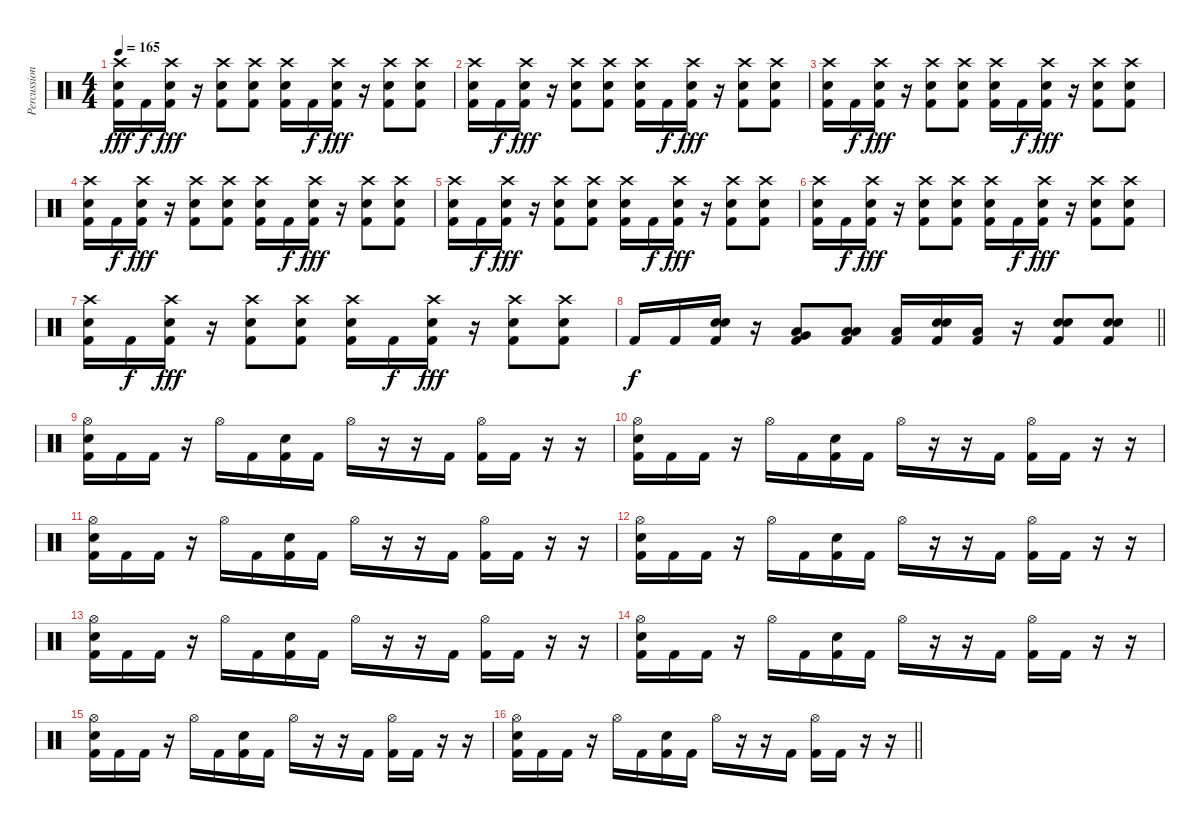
\track ("Percussion" "Percussion") {instrument percussion}
\staff {score}
\articulation defaults
\ts (4 4)
\tempo 165
\clef neutral
\ks c
("Crash high (hit)" "Electric Snare (hit)" "Kick (hit) 2").16{dy fff} "Kick (hit) 2".16{dy f} ("Crash high (hit)" "Electric Snare (hit)" "Kick (hit) 2").16{dy fff} r.16 ("Crash high (hit)" "Electric Snare (hit)" "Kick (hit) 2").8 ("Crash high (hit)" "Electric Snare (hit)" "Kick (hit) 2").8 ("Crash high (hit)" "Electric Snare (hit)" "Kick (hit) 2").16 "Kick (hit) 2".16{dy f} ("Crash high (hit)" "Electric Snare (hit)" "Kick (hit) 2").16{dy fff} r.16 ("Crash high (hit)" "Electric Snare (hit)" "Kick (hit) 2").8 ("Crash high (hit)" "Electric Snare (hit)" "Kick (hit) 2").8 |
("Crash high (hit)" "Electric Snare (hit)" "Kick (hit) 2").16 "Kick (hit) 2".16{dy f} ("Crash high (hit)" "Electric Snare (hit)" "Kick (hit) 2").16{dy fff} r.16 ("Crash high (hit)" "Electric Snare (hit)" "Kick (hit) 2").8 ("Crash high (hit)" "Electric Snare (hit)" "Kick (hit) 2").8 ("Crash high (hit)" "Electric Snare (hit)" "Kick (hit) 2").16 "Kick (hit) 2".16{dy f} ("Crash high (hit)" "Electric Snare (hit)" "Kick (hit) 2").16{dy fff} r.16 ("Crash high (hit)" "Electric Snare (hit)" "Kick (hit) 2").8 ("Crash high (hit)" "Electric Snare (hit)" "Kick (hit) 2").8 |
("Crash high (hit)" "Electric Snare (hit)" "Kick (hit) 2").16 "Kick (hit) 2".16{dy f} ("Crash high (hit)" "Electric Snare (hit)" "Kick (hit) 2").16{dy fff} r.16 ("Crash high (hit)" "Electric Snare (hit)" "Kick (hit) 2").8 ("Crash high (hit)" "Electric Snare (hit)" "Kick (hit) 2").8 ("Crash high (hit)" "Electric Snare (hit)" "Kick (hit) 2").16 "Kick (hit) 2".16{dy f} ("Crash high (hit)" "Electric Snare (hit)" "Kick (hit) 2").16{dy fff} r.16 ("Crash high (hit)" "Electric Snare (hit)" "Kick (hit) 2").8 ("Crash high (hit)" "Electric Snare (hit)" "Kick (hit) 2").8 |
("Crash high (hit)" "Electric Snare (hit)" "Kick (hit) 2").16 "Kick (hit) 2".16{dy f} ("Crash high (hit)" "Electric Snare (hit)" "Kick (hit) 2").16{dy fff} r.16 ("Crash high (hit)" "Electric Snare (hit)" "Kick (hit) 2").8 ("Crash high (hit)" "Electric Snare (hit)" "Kick (hit) 2").8 ("Crash high (hit)" "Electric Snare (hit)" "Kick (hit) 2").16 "Kick (hit) 2".16{dy f} ("Crash high (hit)" "Electric Snare (hit)" "Kick (hit) 2").16{dy fff} r.16 ("Crash high (hit)" "Electric Snare (hit)" "Kick (hit) 2").8 ("Crash high (hit)" "Electric Snare (hit)" "Kick (hit) 2").8 |
("Crash high (hit)" "Electric Snare (hit)" "Kick (hit) 2").16 "Kick (hit) 2".16{dy f} ("Crash high (hit)" "Electric Snare (hit)" "Kick (hit) 2").16{dy fff} r.16 ("Crash high (hit)" "Electric Snare (hit)" "Kick (hit) 2").8 ("Crash high (hit)" "Electric Snare (hit)" "Kick (hit) 2").8 ("Crash high (hit)" "Electric Snare (hit)" "Kick (hit) 2").16 "Kick (hit) 2".16{dy f} ("Crash high (hit)" "Electric Snare (hit)" "Kick (hit) 2").16{dy fff} r.16 ("Crash high (hit)" "Electric Snare (hit)" "Kick (hit) 2").8 ("Crash high (hit)" "Electric Snare (hit)" "Kick (hit) 2").8 |
("Crash high (hit)" "Electric Snare (hit)" "Kick (hit) 2").16 "Kick (hit) 2".16{dy f} ("Crash high (hit)" "Electric Snare (hit)" "Kick (hit) 2").16{dy fff} r.16 ("Crash high (hit)" "Electric Snare (hit)" "Kick (hit) 2").8 ("Crash high (hit)" "Electric Snare (hit)" "Kick (hit) 2").8 ("Crash high (hit)" "Electric Snare (hit)" "Kick (hit) 2").16 "Kick (hit) 2".16{dy f} ("Crash high (hit)" "Electric Snare (hit)" "Kick (hit) 2").16{dy fff} r.16 ("Crash high (hit)" "Electric Snare (hit)" "Kick (hit) 2").8 ("Crash high (hit)" "Electric Snare (hit)" "Kick (hit) 2").8 |
("Crash high (hit)" "Electric Snare (hit)" "Kick (hit) 2").16 "Kick (hit) 2".16{dy f} ("Crash high (hit)" "Electric Snare (hit)" "Kick (hit) 2").16{dy fff} r.16 ("Crash high (hit)" "Electric Snare (hit)" "Kick (hit) 2").8 ("Crash high (hit)" "Electric Snare (hit)" "Kick (hit) 2").8 ("Crash high (hit)" "Electric Snare (hit)" "Kick (hit) 2").16 "Kick (hit) 2".16{dy f} ("Crash high (hit)" "Electric Snare (hit)" "Kick (hit) 2").16{dy fff} r.16 ("Crash high (hit)" "Electric Snare (hit)" "Kick (hit) 2").8 ("Crash high (hit)" "Electric Snare (hit)" "Kick (hit) 2").8 |
\barLineRight lightlight "Kick (hit) 2".16{dy f} "Kick (hit) 2".16
("Electric Snare (hit)" "Electric Snare (hit)" "Kick (hit) 2").16{bd 480} r.16 ("Very Low Tom (hit)" "Low Tom (hit)" "Kick (hit) 2").8 ("Low Tom (hit)" "Low Floor Tom (hit)" "Kick (hit) 2").8 ("Low Tom (hit)" "Kick (hit) 2").16 ("Electric Snare (hit)" "Electric Snare (hit)" "Kick (hit) 2").16{bd 480} ("Low Floor Tom (hit)" "Kick (hit) 2").16 r.16 ("Electric Snare (hit)" "Electric Snare (hit)" "Kick (hit) 2").8{bd 480} ("Electric Snare (hit)" "Electric Snare (hit)" "Kick (hit) 2").8{bd 480} |
("Hi-Hat (open)" "Electric Snare (hit)" "Kick (hit) 2").16 "Kick (hit) 2".16 "Kick (hit) 2".16 r.16 "Hi-Hat (open)".16 "Kick (hit) 2".16 ("Electric Snare (hit)" "Kick (hit) 2").16 "Kick (hit) 2".16 "Hi-Hat (open)".16 r.16 r.16 "Kick (hit) 2".16 ("Hi-Hat (open)" "Kick (hit) 2").16 "Kick (hit) 2".16 r.16 r.16 |
("Hi-Hat (open)" "Electric Snare (hit)" "Kick (hit) 2").16 "Kick (hit) 2".16 "Kick (hit) 2".16 r.16 "Hi-Hat (open)".16 "Kick (hit) 2".16 ("Electric Snare (hit)" "Kick (hit) 2").16 "Kick (hit) 2".16 "Hi-Hat (open)".16 r.16 r.16 "Kick (hit) 2".16 ("Hi-Hat (open)" "Kick (hit) 2").16 "Kick (hit) 2".16 r.16 r.16 |
("Hi-Hat (open)" "Electric Snare (hit)" "Kick (hit) 2").16 "Kick (hit) 2".16 "Kick (hit) 2".16 r.16 "Hi-Hat (open)".16 "Kick (hit) 2".16 ("Electric Snare (hit)" "Kick (hit) 2").16 "Kick (hit) 2".16 "Hi-Hat (open)".16 r.16 r.16 "Kick (hit) 2".16 ("Hi-Hat (open)" "Kick (hit) 2").16 "Kick (hit) 2".16 r.16 r.16 |
("Hi-Hat (open)" "Electric Snare (hit)" "Kick (hit) 2").16 "Kick (hit) 2".16 "Kick (hit) 2".16 r.16 "Hi-Hat (open)".16 "Kick (hit) 2".16 ("Electric Snare (hit)" "Kick (hit) 2").16 "Kick (hit) 2".16 "Hi-Hat (open)".16 r.16 r.16 "Kick (hit) 2".16 ("Hi-Hat (open)" "Kick (hit) 2").16 "Kick (hit) 2".16 r.16 r.16 |
("Hi-Hat (open)" "Electric Snare (hit)" "Kick (hit) 2").16 "Kick (hit) 2".16 "Kick (hit) 2".16 r.16 "Hi-Hat (open)".16 "Kick (hit) 2".16 ("Electric Snare (hit)" "Kick (hit) 2").16 "Kick (hit) 2".16 "Hi-Hat (open)".16 r.16 r.16 "Kick (hit) 2".16 ("Hi-Hat (open)" "Kick (hit) 2").16 "Kick (hit) 2".16 r.16 r.16 |
("Hi-Hat (open)" "Electric Snare (hit)" "Kick (hit) 2").16 "Kick (hit) 2".16 "Kick (hit) 2".16 r.16 "Hi-Hat (open)".16 "Kick (hit) 2".16 ("Electric Snare (hit)" "Kick (hit) 2").16 "Kick (hit) 2".16 "Hi-Hat (open)".16 r.16 r.16 "Kick (hit) 2".16 ("Hi-Hat (open)" "Kick (hit) 2").16 "Kick (hit) 2".16 r.16 r.16 |
("Hi-Hat (open)" "Electric Snare (hit)" "Kick (hit) 2").16 "Kick (hit) 2".16 "Kick (hit) 2".16 r.16 "Hi-Hat (open)".16 "Kick (hit) 2".16 ("Electric Snare (hit)" "Kick (hit) 2").16 "Kick (hit) 2".16 "Hi-Hat (open)".16 r.16 r.16 "Kick (hit) 2".16 ("Hi-Hat (open)" "Kick (hit) 2").16 "Kick (hit) 2".16 r.16 r.16 |
\barLineRight lightlight
("Hi-Hat (open)" "Electric Snare (hit)" "Kick (hit) 2").16 "Kick (hit) 2".16 "Kick (hit) 2".16 r.16 "Hi-Hat (open)".16 "Kick (hit) 2".16 ("Electric Snare (hit)" "Kick (hit) 2").16 "Kick (hit) 2".16 "Hi-Hat (open)".16 r.16 r.16 "Kick (hit) 2".16 ("Hi-Hat (open)" "Kick (hit) 2").16 "Kick (hit) 2".16 r.16 r.16
